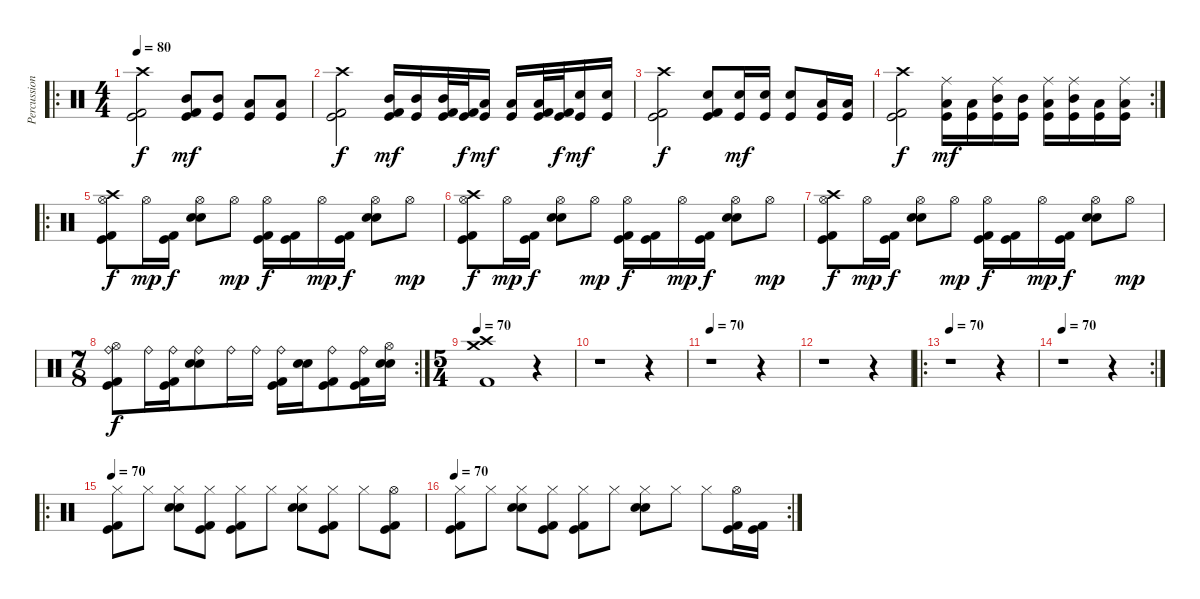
\track ("Percussion" "Percussion") {instrument percussion}
\staff {score}
\articulation defaults
\ro
\ts (4 4)
\tempo 80
\clef neutral
\ks c
("Crash high (hit)" "Kick (hit) 2" "Kick (hit)").2{dy f} ("Mid Tom (hit)" "Kick (hit) 2" "Kick (hit)").8{dy mf} ("Mid Tom (hit)" "Kick (hit)").8 ("Low Tom (hit)" "Kick (hit)").8 ("Low Tom (hit)" "Kick (hit)").8 |
("Crash high (hit)" "Kick (hit) 2" "Kick (hit)").2{dy f} ("Mid Tom (hit)" "Kick (hit) 2" "Kick (hit)").16{dy mf} ("Mid Tom (hit)" "Kick (hit)").16 ("Mid Tom (hit)" "Kick (hit) 2" "Kick (hit)").32 ("Kick (hit) 2" "Kick (hit)").32{dy f} ("Low Tom (hit)" "Kick (hit)").16{dy mf} ("Low Tom (hit)" "Kick (hit)").16 ("Low Tom (hit)" "Kick (hit) 2" "Kick (hit)").32 ("Kick (hit) 2" "Kick (hit)").32{dy f} ("Snare (hit) 2" "Kick (hit)").16{dy mf} ("Snare (hit) 2" "Kick (hit)").16 |
("Crash high (hit)" "Kick (hit) 2" "Kick (hit)").2{dy f} ("Snare (hit) 2" "Kick (hit) 2" "Kick (hit)").8 ("Snare (hit) 2" "Kick (hit)").16{dy mf} ("Snare (hit) 2" "Kick (hit)").16 ("Snare (hit) 2" "Kick (hit)").8 ("Low Tom (hit)" "Kick (hit)").16 ("Low Tom (hit)" "Kick (hit)").16 |
\rc 2
("Crash high (hit)" "Kick (hit) 2" "Kick (hit)").2{dy f} ("Ride (middle)" "Low Tom (hit)" "Kick (hit)").16{dy mf} ("Low Tom (hit)" "Kick (hit)").16 ("Ride (middle)" "Mid Tom (hit)" "Kick (hit)").16 ("Mid Tom (hit)" "Kick (hit)").16 ("Ride (middle)" "Low Tom (hit)" "Kick (hit)").16 ("Ride (middle)" "Mid Tom (hit)" "Kick (hit)").16 ("Low Tom (hit)" "Kick (hit)").16 ("Ride (middle)" "Low Tom (hit)" "Kick (hit)").16 |
\ro
("Hi-Hat (open)" "Crash high (hit)" "Kick (hit) 2" "Kick (hit)").8{dy f} "Hi-Hat (open)".16{dy mp} ("Kick (hit) 2" "Kick (hit)").16{dy f} ("Hi-Hat (open)" "Electric Snare (hit)" "Snare (hit) 2").8 "Hi-Hat (open)".8{dy mp} ("Hi-Hat (open)" "Kick (hit) 2" "Kick (hit)").16{dy f} ("Kick (hit) 2" "Kick (hit)").16 "Hi-Hat (open)".16{dy mp} ("Kick (hit) 2" "Kick (hit)").16{dy f} ("Hi-Hat (open)" "Electric Snare (hit)" "Snare (hit) 2").8 "Hi-Hat (open)".8{dy mp} |
("Hi-Hat (open)" "Crash high (hit)" "Kick (hit) 2" "Kick (hit)").8{dy f} "Hi-Hat (open)".16{dy mp} ("Kick (hit) 2" "Kick (hit)").16{dy f} ("Hi-Hat (open)" "Electric Snare (hit)" "Snare (hit) 2").8 "Hi-Hat (open)".8{dy mp} ("Hi-Hat (open)" "Kick (hit) 2" "Kick (hit)").16{dy f} ("Kick (hit) 2" "Kick (hit)").16 "Hi-Hat (open)".16{dy mp} ("Kick (hit) 2" "Kick (hit)").16{dy f} ("Hi-Hat (open)" "Electric Snare (hit)" "Snare (hit) 2").8 "Hi-Hat (open)".8{dy mp} |
("Hi-Hat (open)" "Crash high (hit)" "Kick (hit) 2" "Kick (hit)").8{dy f} "Hi-Hat (open)".16{dy mp} ("Kick (hit) 2" "Kick (hit)").16{dy f} ("Hi-Hat (open)" "Electric Snare (hit)" "Snare (hit) 2").8 "Hi-Hat (open)".8{dy mp} ("Hi-Hat (open)" "Kick (hit) 2" "Kick (hit)").16{dy f} ("Kick (hit) 2" "Kick (hit)").16 "Hi-Hat (open)".16{dy mp} ("Kick (hit) 2" "Kick (hit)").16{dy f} ("Hi-Hat (open)" "Electric Snare (hit)" "Snare (hit) 2").8 "Hi-Hat (open)".8{dy mp} |
\rc 2
\ts (7 8)
("Ride (bell)" "Hi-Hat (open)" "Kick (hit) 2" "Kick (hit)").8{dy f} "Ride (bell)".16 ("Ride (bell)" "Kick (hit) 2" "Kick (hit)").16 ("Ride (bell)" "Electric Snare (hit)" "Snare (hit) 2").8 "Ride (bell)".16 "Ride (bell)".16 ("Ride (bell)" "Kick (hit) 2" "Kick (hit)").16 ("Electric Snare (hit)" "Snare (hit) 2").16 ("Ride (bell)" "Kick (hit) 2" "Kick (hit)").8 ("Ride (bell)" "Kick (hit) 2" "Kick (hit)").16 ("Hi-Hat (open)" "Electric Snare (hit)" "Snare (hit) 2").16 |
\ts (5 4)
\tempo 70
("Crash high (hit)" "Crash medium (hit)" "Kick (hit) 2").1 r.4 |
r.1 r.4 |
\tempo 70
r.1 r.4 |
r.1 r.4 |
\ro
\tempo 70
r.1 r.4 |
\rc 2
\tempo 70
r.1 r.4 |
\ro
\tempo 70
("Hi-Hat (closed)" "Kick (hit) 2" "Kick (hit)").8 "Hi-Hat (closed)".8 ("Hi-Hat (closed)" "Electric Snare (hit)" "Snare (hit) 2").8 ("Hi-Hat (closed)" "Kick (hit) 2" "Kick (hit)").8 ("Hi-Hat (closed)" "Kick (hit) 2" "Kick (hit)").8 "Hi-Hat (closed)".8 ("Hi-Hat (closed)" "Electric Snare (hit)" "Snare (hit) 2").8 ("Hi-Hat (closed)" "Kick (hit) 2" "Kick (hit)").8 "Hi-Hat (closed)".8 ("Hi-Hat (open)" "Kick (hit) 2" "Kick (hit)").8 |
\rc 2
\tempo 70
("Hi-Hat (closed)" "Kick (hit) 2" "Kick (hit)").8 "Hi-Hat (closed)".8 ("Hi-Hat (closed)" "Electric Snare (hit)" "Snare (hit) 2").8 ("Hi-Hat (closed)" "Kick (hit) 2" "Kick (hit)").8 ("Hi-Hat (closed)" "Kick (hit) 2" "Kick (hit)").8 "Hi-Hat (closed)".8 ("Hi-Hat (closed)" "Electric Snare (hit)" "Snare (hit) 2").8 "Hi-Hat (closed)".8 "Hi-Hat (closed)".8 ("Hi-Hat (open)" "Kick (hit) 2" "Kick (hit)").16 ("Kick (hit) 2" "Kick (hit)").16
